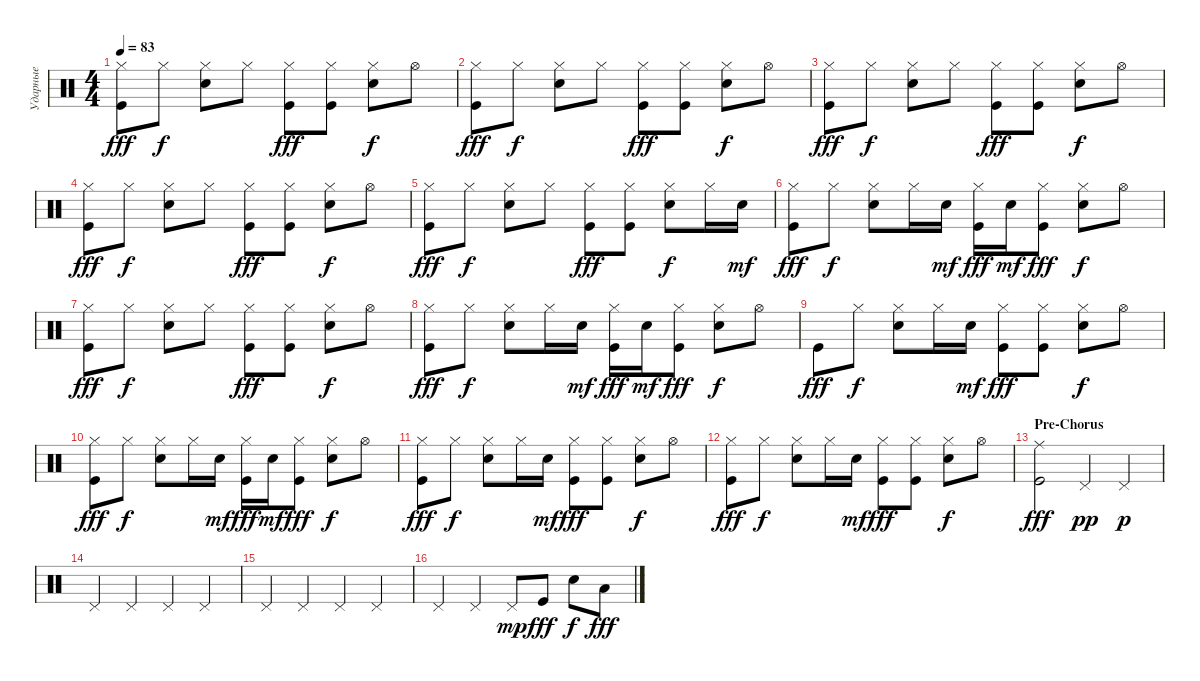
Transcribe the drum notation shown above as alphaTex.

\track ("Ударные" "Ударные") {instrument percussion}
\staff {score}
\articulation defaults
\ts (4 4)
\tempo 83
\clef neutral
\ks c
("Kick (hit)" "Hi-Hat (closed)").8{dy fff} "Hi-Hat (closed)".8{dy f} ("Electric Snare (hit)" "Hi-Hat (closed)").8 "Hi-Hat (closed)".8 ("Kick (hit)" "Hi-Hat (closed)").8{dy fff} ("Kick (hit)" "Hi-Hat (closed)").8 ("Electric Snare (hit)" "Hi-Hat (closed)").8{dy f} "Hi-Hat (open)".8 |
("Kick (hit)" "Hi-Hat (closed)").8{dy fff} "Hi-Hat (closed)".8{dy f} ("Electric Snare (hit)" "Hi-Hat (closed)").8 "Hi-Hat (closed)".8 ("Kick (hit)" "Hi-Hat (closed)").8{dy fff} ("Kick (hit)" "Hi-Hat (closed)").8 ("Electric Snare (hit)" "Hi-Hat (closed)").8{dy f} "Hi-Hat (open)".8 |
("Kick (hit)" "Hi-Hat (closed)").8{dy fff} "Hi-Hat (closed)".8{dy f} ("Electric Snare (hit)" "Hi-Hat (closed)").8 "Hi-Hat (closed)".8 ("Kick (hit)" "Hi-Hat (closed)").8{dy fff} ("Kick (hit)" "Hi-Hat (closed)").8 ("Electric Snare (hit)" "Hi-Hat (closed)").8{dy f} "Hi-Hat (open)".8 |
("Kick (hit)" "Hi-Hat (closed)").8{dy fff} "Hi-Hat (closed)".8{dy f} ("Electric Snare (hit)" "Hi-Hat (closed)").8 "Hi-Hat (closed)".8 ("Kick (hit)" "Hi-Hat (closed)").8{dy fff} ("Kick (hit)" "Hi-Hat (closed)").8 ("Electric Snare (hit)" "Hi-Hat (closed)").8{dy f} "Hi-Hat (open)".8 |
("Kick (hit)" "Hi-Hat (closed)").8{dy fff} "Hi-Hat (closed)".8{dy f} ("Electric Snare (hit)" "Hi-Hat (closed)").8 "Hi-Hat (closed)".8 ("Kick (hit)" "Hi-Hat (closed)").8{dy fff} ("Kick (hit)" "Hi-Hat (closed)").8 ("Electric Snare (hit)" "Hi-Hat (closed)").8{dy f} "Hi-Hat (closed)".16 "Electric Snare (hit)".16{dy mf} |
("Kick (hit)" "Hi-Hat (closed)").8{dy fff} "Hi-Hat (closed)".8{dy f} ("Electric Snare (hit)" "Hi-Hat (closed)").8 "Hi-Hat (closed)".16 "Electric Snare (hit)".16{dy mf} ("Kick (hit)" "Hi-Hat (closed)").16{dy fff} "Electric Snare (hit)".16{dy mf} ("Kick (hit)" "Hi-Hat (closed)").8{dy fff} ("Electric Snare (hit)" "Hi-Hat (closed)").8{dy f} "Hi-Hat (open)".8 |
("Kick (hit)" "Hi-Hat (closed)").8{dy fff} "Hi-Hat (closed)".8{dy f} ("Electric Snare (hit)" "Hi-Hat (closed)").8 "Hi-Hat (closed)".8 ("Kick (hit)" "Hi-Hat (closed)").8{dy fff} ("Kick (hit)" "Hi-Hat (closed)").8 ("Electric Snare (hit)" "Hi-Hat (closed)").8{dy f} "Hi-Hat (open)".8 |
("Kick (hit)" "Hi-Hat (closed)").8{dy fff} "Hi-Hat (closed)".8{dy f} ("Electric Snare (hit)" "Hi-Hat (closed)").8 "Hi-Hat (closed)".16 "Electric Snare (hit)".16{dy mf} ("Kick (hit)" "Hi-Hat (closed)").16{dy fff} "Electric Snare (hit)".16{dy mf} ("Kick (hit)" "Hi-Hat (closed)").8{dy fff} ("Electric Snare (hit)" "Hi-Hat (closed)").8{dy f} "Hi-Hat (open)".8 |
"Kick (hit)".8{dy fff} "Hi-Hat (closed)".8{dy f} ("Electric Snare (hit)" "Hi-Hat (closed)").8 "Hi-Hat (closed)".16 "Electric Snare (hit)".16{dy mf} ("Kick (hit)" "Hi-Hat (closed)").8{dy fff} ("Kick (hit)" "Hi-Hat (closed)").8 ("Electric Snare (hit)" "Hi-Hat (closed)").8{dy f} "Hi-Hat (open)".8 |
("Kick (hit)" "Hi-Hat (closed)").8{dy fff} "Hi-Hat (closed)".8{dy f} ("Electric Snare (hit)" "Hi-Hat (closed)").8 "Hi-Hat (closed)".16 "Electric Snare (hit)".16{dy mf} ("Kick (hit)" "Hi-Hat (closed)").16{dy fff} "Electric Snare (hit)".16{dy mf} ("Kick (hit)" "Hi-Hat (closed)").8{dy fff} ("Electric Snare (hit)" "Hi-Hat (closed)").8{dy f} "Hi-Hat (open)".8 |
("Kick (hit)" "Hi-Hat (closed)").8{dy fff} "Hi-Hat (closed)".8{dy f} ("Electric Snare (hit)" "Hi-Hat (closed)").8 "Hi-Hat (closed)".16 "Electric Snare (hit)".16{dy mf} ("Kick (hit)" "Hi-Hat (closed)").8{dy fff} ("Kick (hit)" "Hi-Hat (closed)").8 ("Electric Snare (hit)" "Hi-Hat (closed)").8{dy f} "Hi-Hat (open)".8 |
("Kick (hit)" "Hi-Hat (closed)").8{dy fff} "Hi-Hat (closed)".8{dy f} ("Electric Snare (hit)" "Hi-Hat (closed)").8 "Hi-Hat (closed)".16 "Electric Snare (hit)".16{dy mf} ("Kick (hit)" "Hi-Hat (closed)").8{dy fff} ("Kick (hit)" "Hi-Hat (closed)").8 ("Electric Snare (hit)" "Hi-Hat (closed)").8{dy f} "Hi-Hat (open)".8 |
\section ("" "Pre-Chorus")
("Kick (hit)" "Ride (middle)").2{dy fff} "Pedal Hi-Hat (hit)".4{dy pp} "Pedal Hi-Hat (hit)".4{dy p} |
"Pedal Hi-Hat (hit)".4 "Pedal Hi-Hat (hit)".4 "Pedal Hi-Hat (hit)".4 "Pedal Hi-Hat (hit)".4 |
"Pedal Hi-Hat (hit)".4 "Pedal Hi-Hat (hit)".4 "Pedal Hi-Hat (hit)".4 "Pedal Hi-Hat (hit)".4 |
"Pedal Hi-Hat (hit)".4 "Pedal Hi-Hat (hit)".4 "Pedal Hi-Hat (hit)".8{dy mp} "Kick (hit)".8{dy fff} "Electric Snare (hit)".8{dy f} "Low Tom (hit)".8{dy fff}
